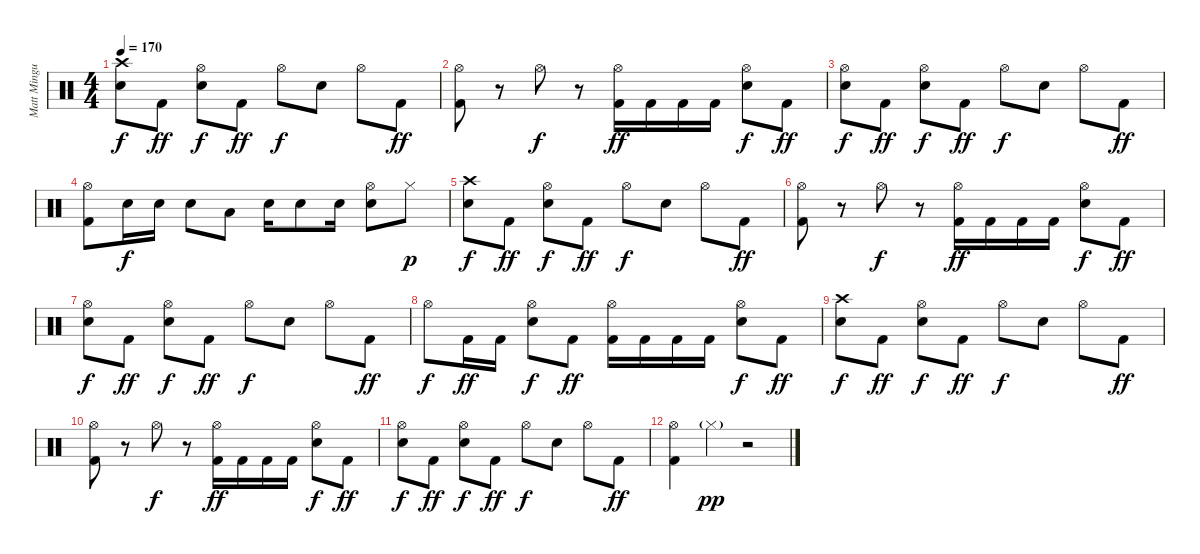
\track ("Matt Mingus (Drum Kit)" "Matt Mingu") {instrument percussion}
\staff {score}
\articulation defaults
\ts (4 4)
\tempo 170
\clef neutral
\ks c
("Crash high (hit)" "Electric Snare (hit)").8{dy f} "Kick (hit) 2".8{dy ff} ("Hi-Hat (open)" "Electric Snare (hit)").8{dy f} "Kick (hit) 2".8{dy ff} "Hi-Hat (open)".8{dy f} "Electric Snare (hit)".8 "Hi-Hat (open)".8 "Kick (hit) 2".8{dy ff} |
("Hi-Hat (open)" "Kick (hit) 2").8 r.8 "Hi-Hat (open)".8{dy f} r.8 ("Hi-Hat (open)" "Kick (hit) 2").16{dy ff} "Kick (hit) 2".16 "Kick (hit) 2".16 "Kick (hit) 2".16 ("Hi-Hat (open)" "Electric Snare (hit)").8{dy f} "Kick (hit) 2".8{dy ff} |
("Hi-Hat (open)" "Electric Snare (hit)").8{dy f} "Kick (hit) 2".8{dy ff} ("Hi-Hat (open)" "Electric Snare (hit)").8{dy f} "Kick (hit) 2".8{dy ff} "Hi-Hat (open)".8{dy f} "Electric Snare (hit)".8 "Hi-Hat (open)".8 "Kick (hit) 2".8{dy ff} |
("Hi-Hat (open)" "Kick (hit) 2").8 "Electric Snare (hit)".16{dy f} "Electric Snare (hit)".16 "Electric Snare (hit)".8 "Low Tom (hit)".8 "Electric Snare (hit)".16 "Electric Snare (hit)".8 "Electric Snare (hit)".16 ("Hi-Hat (open)" "Electric Snare (hit)").8 "Hi-Hat (closed)".8{dy p} |
("Crash high (hit)" "Electric Snare (hit)").8{dy f} "Kick (hit) 2".8{dy ff} ("Hi-Hat (open)" "Electric Snare (hit)").8{dy f} "Kick (hit) 2".8{dy ff} "Hi-Hat (open)".8{dy f} "Electric Snare (hit)".8 "Hi-Hat (open)".8 "Kick (hit) 2".8{dy ff} |
("Hi-Hat (open)" "Kick (hit) 2").8 r.8 "Hi-Hat (open)".8{dy f} r.8 ("Hi-Hat (open)" "Kick (hit) 2").16{dy ff} "Kick (hit) 2".16 "Kick (hit) 2".16 "Kick (hit) 2".16 ("Hi-Hat (open)" "Electric Snare (hit)").8{dy f} "Kick (hit) 2".8{dy ff} |
("Hi-Hat (open)" "Electric Snare (hit)").8{dy f} "Kick (hit) 2".8{dy ff} ("Hi-Hat (open)" "Electric Snare (hit)").8{dy f} "Kick (hit) 2".8{dy ff} "Hi-Hat (open)".8{dy f} "Electric Snare (hit)".8 "Hi-Hat (open)".8 "Kick (hit) 2".8{dy ff} |
"Hi-Hat (open)".8{dy f} "Kick (hit) 2".16{dy ff} "Kick (hit) 2".16 ("Hi-Hat (open)" "Electric Snare (hit)").8{dy f} "Kick (hit) 2".8{dy ff} ("Hi-Hat (open)" "Kick (hit) 2").16 "Kick (hit) 2".16 "Kick (hit) 2".16 "Kick (hit) 2".16 ("Hi-Hat (open)" "Electric Snare (hit)").8{dy f} "Kick (hit) 2".8{dy ff} |
("Crash high (hit)" "Electric Snare (hit)").8{dy f} "Kick (hit) 2".8{dy ff} ("Hi-Hat (open)" "Electric Snare (hit)").8{dy f} "Kick (hit) 2".8{dy ff} "Hi-Hat (open)".8{dy f} "Electric Snare (hit)".8 "Hi-Hat (open)".8 "Kick (hit) 2".8{dy ff} |
("Hi-Hat (open)" "Kick (hit) 2").8 r.8 "Hi-Hat (open)".8{dy f} r.8 ("Hi-Hat (open)" "Kick (hit) 2").16{dy ff} "Kick (hit) 2".16 "Kick (hit) 2".16 "Kick (hit) 2".16 ("Hi-Hat (open)" "Electric Snare (hit)").8{dy f} "Kick (hit) 2".8{dy ff} |
("Hi-Hat (open)" "Electric Snare (hit)").8{dy f} "Kick (hit) 2".8{dy ff} ("Hi-Hat (open)" "Electric Snare (hit)").8{dy f} "Kick (hit) 2".8{dy ff} "Hi-Hat (open)".8{dy f} "Electric Snare (hit)".8 "Hi-Hat (open)".8 "Kick (hit) 2".8{dy ff} |
("Hi-Hat (open)" "Kick (hit) 2").4 "Hi-Hat (closed)"{g}.4{dy pp} r.2
